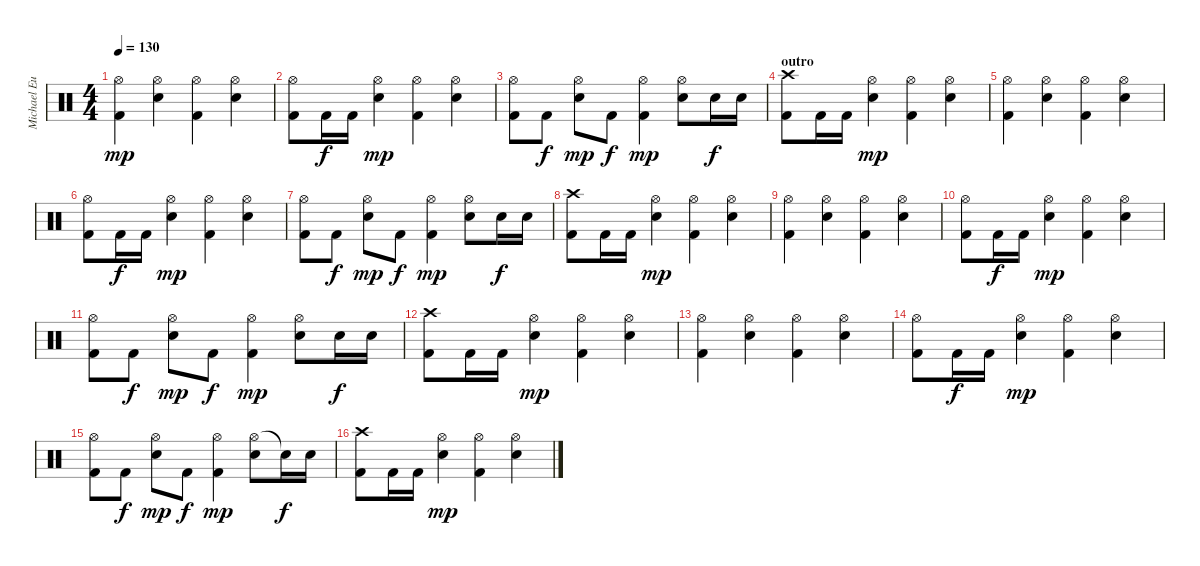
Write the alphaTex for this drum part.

\track ("Michael Eurich" "Michael Eu") {instrument percussion}
\staff {score}
\articulation defaults
\ts (4 4)
\tempo 130
\clef neutral
\ks c
("Kick (hit) 2" "Hi-Hat (open)").4{dy mp} ("Hi-Hat (open)" "Snare (hit) 2").4 ("Kick (hit) 2" "Hi-Hat (open)").4 ("Hi-Hat (open)" "Snare (hit) 2").4 |
("Kick (hit) 2" "Hi-Hat (open)").8 "Kick (hit) 2".16{dy f} "Kick (hit) 2".16 ("Hi-Hat (open)" "Snare (hit) 2").4{dy mp} ("Kick (hit) 2" "Hi-Hat (open)").4 ("Hi-Hat (open)" "Snare (hit) 2").4 |
("Kick (hit) 2" "Hi-Hat (open)").8 "Kick (hit) 2".8{dy f} ("Hi-Hat (open)" "Snare (hit) 2").8{dy mp} "Kick (hit) 2".8{dy f} ("Kick (hit) 2" "Hi-Hat (open)").4{dy mp} ("Hi-Hat (open)" "Snare (hit) 2").8 "Snare (hit) 2".16{dy f} "Snare (hit) 2".16 |
\section ("" "outro")
("Kick (hit) 2" "Crash high (hit)").8 "Kick (hit) 2".16 "Kick (hit) 2".16 ("Hi-Hat (open)" "Snare (hit) 2").4{dy mp} ("Kick (hit) 2" "Hi-Hat (open)").4 ("Hi-Hat (open)" "Snare (hit) 2").4 |
("Kick (hit) 2" "Hi-Hat (open)").4 ("Hi-Hat (open)" "Snare (hit) 2").4 ("Kick (hit) 2" "Hi-Hat (open)").4 ("Hi-Hat (open)" "Snare (hit) 2").4 |
("Kick (hit) 2" "Hi-Hat (open)").8 "Kick (hit) 2".16{dy f} "Kick (hit) 2".16 ("Hi-Hat (open)" "Snare (hit) 2").4{dy mp} ("Kick (hit) 2" "Hi-Hat (open)").4 ("Hi-Hat (open)" "Snare (hit) 2").4 |
("Kick (hit) 2" "Hi-Hat (open)").8 "Kick (hit) 2".8{dy f} ("Hi-Hat (open)" "Snare (hit) 2").8{dy mp} "Kick (hit) 2".8{dy f} ("Kick (hit) 2" "Hi-Hat (open)").4{dy mp} ("Hi-Hat (open)" "Snare (hit) 2").8 "Snare (hit) 2".16{dy f} "Snare (hit) 2".16 |
("Kick (hit) 2" "Crash high (hit)").8 "Kick (hit) 2".16 "Kick (hit) 2".16 ("Hi-Hat (open)" "Snare (hit) 2").4{dy mp} ("Kick (hit) 2" "Hi-Hat (open)").4 ("Hi-Hat (open)" "Snare (hit) 2").4 |
("Kick (hit) 2" "Hi-Hat (open)").4 ("Hi-Hat (open)" "Snare (hit) 2").4 ("Kick (hit) 2" "Hi-Hat (open)").4 ("Hi-Hat (open)" "Snare (hit) 2").4 |
("Kick (hit) 2" "Hi-Hat (open)").8 "Kick (hit) 2".16{dy f} "Kick (hit) 2".16 ("Hi-Hat (open)" "Snare (hit) 2").4{dy mp} ("Kick (hit) 2" "Hi-Hat (open)").4 ("Hi-Hat (open)" "Snare (hit) 2").4 |
("Kick (hit) 2" "Hi-Hat (open)").8 "Kick (hit) 2".8{dy f} ("Hi-Hat (open)" "Snare (hit) 2").8{dy mp} "Kick (hit) 2".8{dy f} ("Kick (hit) 2" "Hi-Hat (open)").4{dy mp} ("Hi-Hat (open)" "Snare (hit) 2").8 "Snare (hit) 2".16{dy f} "Snare (hit) 2".16 |
("Kick (hit) 2" "Crash high (hit)").8 "Kick (hit) 2".16 "Kick (hit) 2".16 ("Hi-Hat (open)" "Snare (hit) 2").4{dy mp} ("Kick (hit) 2" "Hi-Hat (open)").4 ("Hi-Hat (open)" "Snare (hit) 2").4 |
("Kick (hit) 2" "Hi-Hat (open)").4 ("Hi-Hat (open)" "Snare (hit) 2").4 ("Kick (hit) 2" "Hi-Hat (open)").4 ("Hi-Hat (open)" "Snare (hit) 2").4 |
("Kick (hit) 2" "Hi-Hat (open)").8 "Kick (hit) 2".16{dy f} "Kick (hit) 2".16 ("Hi-Hat (open)" "Snare (hit) 2").4{dy mp} ("Kick (hit) 2" "Hi-Hat (open)").4 ("Hi-Hat (open)" "Snare (hit) 2").4 |
("Kick (hit) 2" "Hi-Hat (open)").8 "Kick (hit) 2".8{dy f} ("Hi-Hat (open)" "Snare (hit) 2").8{dy mp} "Kick (hit) 2".8{dy f} ("Kick (hit) 2" "Hi-Hat (open)").4{dy mp} ("Hi-Hat (open)" "Snare (hit) 2").8 "Snare (hit) 2"{t}.16{dy f} "Snare (hit) 2".16 |
("Kick (hit) 2" "Crash high (hit)").8 "Kick (hit) 2".16 "Kick (hit) 2".16 ("Hi-Hat (open)" "Snare (hit) 2").4{dy mp} ("Kick (hit) 2" "Hi-Hat (open)").4 ("Hi-Hat (open)" "Snare (hit) 2").4
